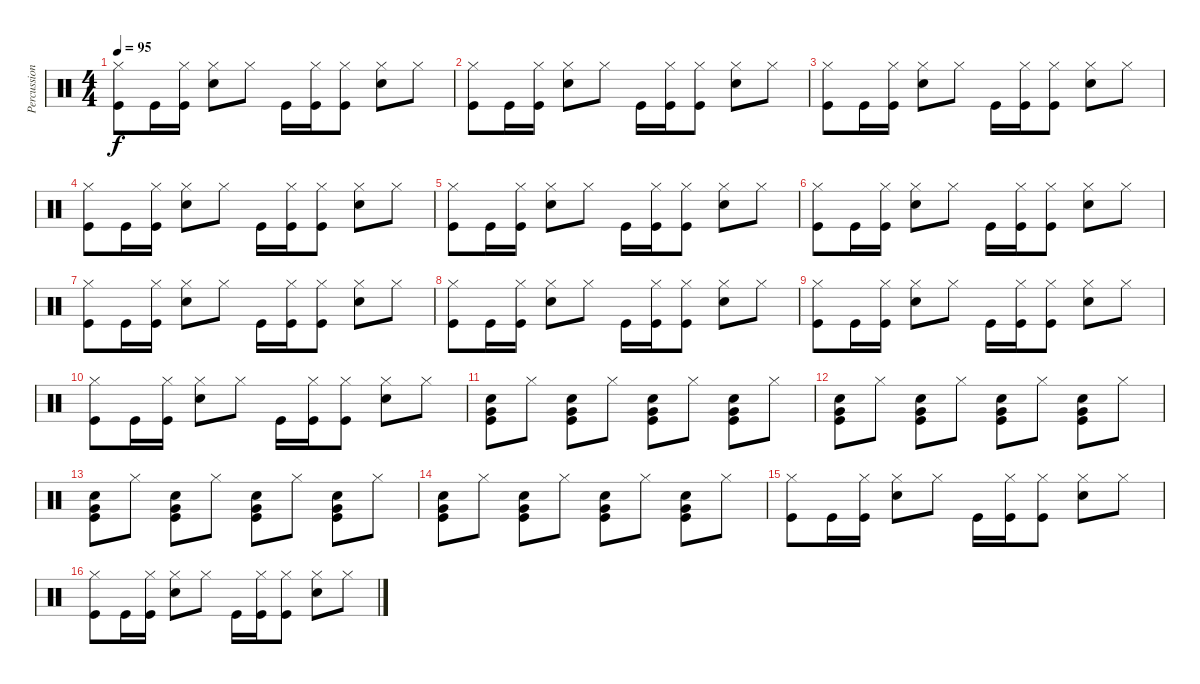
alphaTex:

\track ("Percussion" "Percussion") {instrument percussion}
\staff {score}
\articulation defaults
\ts (4 4)
\tempo 95
\clef neutral
\ks c
("Hi-Hat (closed)" "Kick (hit)").8{dy f} "Kick (hit)".16 ("Hi-Hat (closed)" "Kick (hit)").16 ("Hi-Hat (closed)" "Snare (hit) 2").8 "Hi-Hat (closed)".8 "Kick (hit)".16 ("Hi-Hat (closed)" "Kick (hit)").16 ("Hi-Hat (closed)" "Kick (hit)").8 ("Hi-Hat (closed)" "Snare (hit) 2").8 "Hi-Hat (closed)".8 |
("Hi-Hat (closed)" "Kick (hit)").8 "Kick (hit)".16 ("Hi-Hat (closed)" "Kick (hit)").16 ("Hi-Hat (closed)" "Snare (hit) 2").8 "Hi-Hat (closed)".8 "Kick (hit)".16 ("Hi-Hat (closed)" "Kick (hit)").16 ("Hi-Hat (closed)" "Kick (hit)").8 ("Hi-Hat (closed)" "Snare (hit) 2").8 "Hi-Hat (closed)".8 |
("Hi-Hat (closed)" "Kick (hit)").8 "Kick (hit)".16 ("Hi-Hat (closed)" "Kick (hit)").16 ("Hi-Hat (closed)" "Snare (hit) 2").8 "Hi-Hat (closed)".8 "Kick (hit)".16 ("Hi-Hat (closed)" "Kick (hit)").16 ("Hi-Hat (closed)" "Kick (hit)").8 ("Hi-Hat (closed)" "Snare (hit) 2").8 "Hi-Hat (closed)".8 |
("Hi-Hat (closed)" "Kick (hit)").8 "Kick (hit)".16 ("Hi-Hat (closed)" "Kick (hit)").16 ("Hi-Hat (closed)" "Snare (hit) 2").8 "Hi-Hat (closed)".8 "Kick (hit)".16 ("Hi-Hat (closed)" "Kick (hit)").16 ("Hi-Hat (closed)" "Kick (hit)").8 ("Hi-Hat (closed)" "Snare (hit) 2").8 "Hi-Hat (closed)".8 |
("Hi-Hat (closed)" "Kick (hit)").8 "Kick (hit)".16 ("Hi-Hat (closed)" "Kick (hit)").16 ("Hi-Hat (closed)" "Snare (hit) 2").8 "Hi-Hat (closed)".8 "Kick (hit)".16 ("Hi-Hat (closed)" "Kick (hit)").16 ("Hi-Hat (closed)" "Kick (hit)").8 ("Hi-Hat (closed)" "Snare (hit) 2").8 "Hi-Hat (closed)".8 |
("Hi-Hat (closed)" "Kick (hit)").8 "Kick (hit)".16 ("Hi-Hat (closed)" "Kick (hit)").16 ("Hi-Hat (closed)" "Snare (hit) 2").8 "Hi-Hat (closed)".8 "Kick (hit)".16 ("Hi-Hat (closed)" "Kick (hit)").16 ("Hi-Hat (closed)" "Kick (hit)").8 ("Hi-Hat (closed)" "Snare (hit) 2").8 "Hi-Hat (closed)".8 |
("Hi-Hat (closed)" "Kick (hit)").8 "Kick (hit)".16 ("Hi-Hat (closed)" "Kick (hit)").16 ("Hi-Hat (closed)" "Snare (hit) 2").8 "Hi-Hat (closed)".8 "Kick (hit)".16 ("Hi-Hat (closed)" "Kick (hit)").16 ("Hi-Hat (closed)" "Kick (hit)").8 ("Hi-Hat (closed)" "Snare (hit) 2").8 "Hi-Hat (closed)".8 |
("Hi-Hat (closed)" "Kick (hit)").8 "Kick (hit)".16 ("Hi-Hat (closed)" "Kick (hit)").16 ("Hi-Hat (closed)" "Snare (hit) 2").8 "Hi-Hat (closed)".8 "Kick (hit)".16 ("Hi-Hat (closed)" "Kick (hit)").16 ("Hi-Hat (closed)" "Kick (hit)").8 ("Hi-Hat (closed)" "Snare (hit) 2").8 "Hi-Hat (closed)".8 |
("Hi-Hat (closed)" "Kick (hit)").8 "Kick (hit)".16 ("Hi-Hat (closed)" "Kick (hit)").16 ("Hi-Hat (closed)" "Snare (hit) 2").8 "Hi-Hat (closed)".8 "Kick (hit)".16 ("Hi-Hat (closed)" "Kick (hit)").16 ("Hi-Hat (closed)" "Kick (hit)").8 ("Hi-Hat (closed)" "Snare (hit) 2").8 "Hi-Hat (closed)".8 |
("Hi-Hat (closed)" "Kick (hit)").8 "Kick (hit)".16 ("Hi-Hat (closed)" "Kick (hit)").16 ("Hi-Hat (closed)" "Snare (hit) 2").8 "Hi-Hat (closed)".8 "Kick (hit)".16 ("Hi-Hat (closed)" "Kick (hit)").16 ("Hi-Hat (closed)" "Kick (hit)").8 ("Hi-Hat (closed)" "Snare (hit) 2").8 "Hi-Hat (closed)".8 |
("Very Low Tom (hit)" "Snare (hit) 2" "Kick (hit)").8 "Hi-Hat (closed)".8 ("Snare (hit) 2" "Kick (hit)" "Very Low Tom (hit)").8 "Hi-Hat (closed)".8 ("Snare (hit) 2" "Kick (hit)" "Very Low Tom (hit)").8 "Hi-Hat (closed)".8 ("Snare (hit) 2" "Very Low Tom (hit)" "Kick (hit)").8 "Hi-Hat (closed)".8 |
("Very Low Tom (hit)" "Snare (hit) 2" "Kick (hit)").8 "Hi-Hat (closed)".8 ("Snare (hit) 2" "Kick (hit)" "Very Low Tom (hit)").8 "Hi-Hat (closed)".8 ("Snare (hit) 2" "Kick (hit)" "Very Low Tom (hit)").8 "Hi-Hat (closed)".8 ("Snare (hit) 2" "Very Low Tom (hit)" "Kick (hit)").8 "Hi-Hat (closed)".8 |
("Very Low Tom (hit)" "Snare (hit) 2" "Kick (hit)").8 "Hi-Hat (closed)".8 ("Snare (hit) 2" "Kick (hit)" "Very Low Tom (hit)").8 "Hi-Hat (closed)".8 ("Snare (hit) 2" "Kick (hit)" "Very Low Tom (hit)").8 "Hi-Hat (closed)".8 ("Snare (hit) 2" "Very Low Tom (hit)" "Kick (hit)").8 "Hi-Hat (closed)".8 |
("Very Low Tom (hit)" "Snare (hit) 2" "Kick (hit)").8 "Hi-Hat (closed)".8 ("Snare (hit) 2" "Kick (hit)" "Very Low Tom (hit)").8 "Hi-Hat (closed)".8 ("Snare (hit) 2" "Kick (hit)" "Very Low Tom (hit)").8 "Hi-Hat (closed)".8 ("Snare (hit) 2" "Very Low Tom (hit)" "Kick (hit)").8 "Hi-Hat (closed)".8 |
("Hi-Hat (closed)" "Kick (hit)").8 "Kick (hit)".16 ("Hi-Hat (closed)" "Kick (hit)").16 ("Hi-Hat (closed)" "Snare (hit) 2").8 "Hi-Hat (closed)".8 "Kick (hit)".16 ("Hi-Hat (closed)" "Kick (hit)").16 ("Hi-Hat (closed)" "Kick (hit)").8 ("Hi-Hat (closed)" "Snare (hit) 2").8 "Hi-Hat (closed)".8 |
("Hi-Hat (closed)" "Kick (hit)").8 "Kick (hit)".16 ("Hi-Hat (closed)" "Kick (hit)").16 ("Hi-Hat (closed)" "Snare (hit) 2").8 "Hi-Hat (closed)".8 "Kick (hit)".16 ("Hi-Hat (closed)" "Kick (hit)").16 ("Hi-Hat (closed)" "Kick (hit)").8 ("Hi-Hat (closed)" "Snare (hit) 2").8 "Hi-Hat (closed)".8
